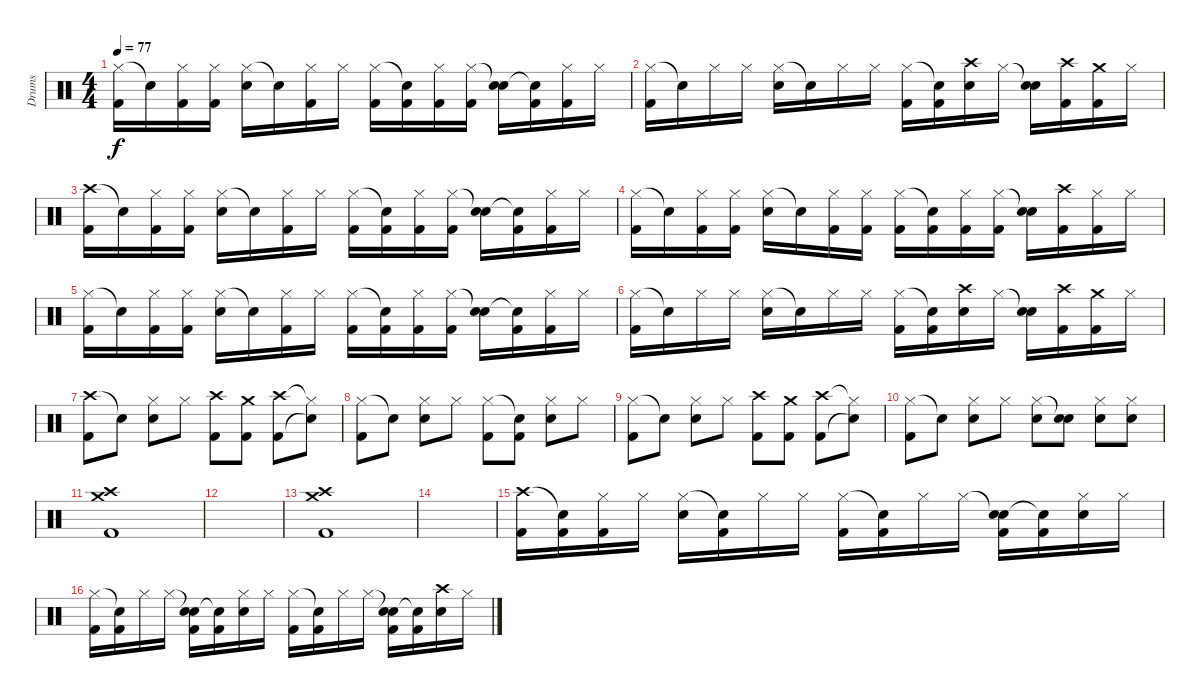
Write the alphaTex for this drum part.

\track ("Drums" "Drums") {instrument percussion}
\staff {score}
\articulation defaults
\ts (4 4)
\tempo 77
\clef neutral
\ks c
("Hi-Hat (closed)" "Kick (hit) 2").16{dy f} "Snare (hit)"{t}.16 ("Hi-Hat (closed)" "Kick (hit) 2").16 ("Hi-Hat (closed)" "Kick (hit) 2").16 ("Hi-Hat (closed)" "Electric Snare (hit)").16 "Snare (hit)"{t}.16 ("Hi-Hat (closed)" "Kick (hit) 2").16 "Hi-Hat (closed)".16 ("Hi-Hat (closed)" "Kick (hit) 2").16 ("Snare (hit)"{t} "Kick (hit) 2").16 ("Hi-Hat (closed)" "Kick (hit) 2").16 ("Hi-Hat (closed)" "Kick (hit) 2").16 ("Snare (hit)"{t} "Electric Snare (hit)").16 ("Snare (hit)"{t} "Kick (hit) 2").16 ("Hi-Hat (closed)" "Kick (hit) 2").16 "Hi-Hat (closed)".16 |
("Hi-Hat (closed)" "Kick (hit) 2").16 "Snare (hit)"{t}.16 "Hi-Hat (closed)".16 "Hi-Hat (closed)".16 ("Hi-Hat (closed)" "Electric Snare (hit)").16 "Snare (hit)"{t}.16 "Hi-Hat (closed)".16 "Hi-Hat (closed)".16 ("Hi-Hat (closed)" "Kick (hit) 2").16 ("Snare (hit)"{t} "Kick (hit) 2").16 ("Crash high (hit)" "Electric Snare (hit)").16 "Hi-Hat (closed)".16 ("Snare (hit)"{t} "Electric Snare (hit)").16 ("Crash high (hit)" "Kick (hit) 2").16 ("Crash medium (hit)" "Kick (hit) 2").16 "Hi-Hat (closed)".16 |
("Crash high (hit)" "Kick (hit) 2").16 "Snare (hit)"{t}.16 ("Hi-Hat (closed)" "Kick (hit) 2").16 ("Hi-Hat (closed)" "Kick (hit) 2").16 ("Hi-Hat (closed)" "Electric Snare (hit)").16 "Snare (hit)"{t}.16 ("Hi-Hat (closed)" "Kick (hit) 2").16 "Hi-Hat (closed)".16 ("Hi-Hat (closed)" "Kick (hit) 2").16 ("Snare (hit)"{t} "Kick (hit) 2").16 ("Hi-Hat (closed)" "Kick (hit) 2").16 ("Hi-Hat (closed)" "Kick (hit) 2").16 ("Snare (hit)"{t} "Electric Snare (hit)").16 ("Snare (hit)"{t} "Kick (hit) 2").16 ("Hi-Hat (closed)" "Kick (hit) 2").16 "Hi-Hat (closed)".16 |
("Hi-Hat (closed)" "Kick (hit) 2").16 "Snare (hit)"{t}.16 ("Hi-Hat (closed)" "Kick (hit) 2").16 ("Hi-Hat (closed)" "Kick (hit) 2").16 ("Hi-Hat (closed)" "Electric Snare (hit)").16 "Snare (hit)"{t}.16 ("Hi-Hat (closed)" "Kick (hit) 2").16 ("Hi-Hat (closed)" "Kick (hit) 2").16 ("Hi-Hat (closed)" "Kick (hit) 2").16 ("Snare (hit)"{t} "Kick (hit) 2").16 ("Hi-Hat (closed)" "Kick (hit) 2").16 ("Hi-Hat (closed)" "Kick (hit) 2").16 ("Snare (hit)"{t} "Electric Snare (hit)").16 ("Crash high (hit)" "Kick (hit) 2").16 ("Hi-Hat (closed)" "Kick (hit) 2").16 "Hi-Hat (closed)".16 |
("Hi-Hat (closed)" "Kick (hit) 2").16 "Snare (hit)"{t}.16 ("Hi-Hat (closed)" "Kick (hit) 2").16 ("Hi-Hat (closed)" "Kick (hit) 2").16 ("Hi-Hat (closed)" "Electric Snare (hit)").16 "Snare (hit)"{t}.16 ("Hi-Hat (closed)" "Kick (hit) 2").16 "Hi-Hat (closed)".16 ("Hi-Hat (closed)" "Kick (hit) 2").16 ("Snare (hit)"{t} "Kick (hit) 2").16 ("Hi-Hat (closed)" "Kick (hit) 2").16 ("Hi-Hat (closed)" "Kick (hit) 2").16 ("Snare (hit)"{t} "Electric Snare (hit)").16 ("Snare (hit)"{t} "Kick (hit) 2").16 ("Hi-Hat (closed)" "Kick (hit) 2").16 "Hi-Hat (closed)".16 |
("Hi-Hat (closed)" "Kick (hit) 2").16 "Snare (hit)"{t}.16 "Hi-Hat (closed)".16 "Hi-Hat (closed)".16 ("Hi-Hat (closed)" "Electric Snare (hit)").16 "Snare (hit)"{t}.16 "Hi-Hat (closed)".16 "Hi-Hat (closed)".16 ("Hi-Hat (closed)" "Kick (hit) 2").16 ("Snare (hit)"{t} "Kick (hit) 2").16 ("Crash high (hit)" "Electric Snare (hit)").16 "Hi-Hat (closed)".16 ("Snare (hit)"{t} "Electric Snare (hit)").16 ("Crash high (hit)" "Kick (hit) 2").16 ("Crash medium (hit)" "Kick (hit) 2").16 "Hi-Hat (closed)".16 |
("Crash high (hit)" "Kick (hit) 2").8 "Snare (hit)"{t}.8 ("Hi-Hat (closed)" "Electric Snare (hit)").8 "Hi-Hat (closed)".8 ("Crash high (hit)" "Kick (hit) 2").8 ("Crash medium (hit)" "Kick (hit) 2").8 ("Crash high (hit)" "Kick (hit) 2").8 ("Hi-Hat (closed)"{t} "Snare (hit)"{t}).8 |
("Hi-Hat (closed)" "Kick (hit) 2").8 "Snare (hit)"{t}.8 ("Hi-Hat (closed)" "Electric Snare (hit)").8 "Hi-Hat (closed)".8 ("Hi-Hat (closed)" "Kick (hit) 2").8 ("Snare (hit)"{t} "Kick (hit) 2").8 ("Hi-Hat (closed)" "Electric Snare (hit)").8 "Hi-Hat (closed)".8 |
("Hi-Hat (closed)" "Kick (hit) 2").8 "Snare (hit)"{t}.8 ("Hi-Hat (closed)" "Electric Snare (hit)").8 "Hi-Hat (closed)".8 ("Crash high (hit)" "Kick (hit) 2").8 ("Crash medium (hit)" "Kick (hit) 2").8 ("Crash high (hit)" "Kick (hit) 2").8 ("Hi-Hat (closed)"{t} "Snare (hit)"{t}).8 |
("Hi-Hat (closed)" "Kick (hit) 2").8 "Snare (hit)"{t}.8 ("Hi-Hat (closed)" "Electric Snare (hit)").8 "Hi-Hat (closed)".8 ("Hi-Hat (closed)" "Electric Snare (hit)").8 ("Snare (hit)"{t} "Electric Snare (hit)").8 ("Hi-Hat (closed)" "Electric Snare (hit)").8 ("Hi-Hat (closed)" "Electric Snare (hit)").8 |
("Crash high (hit)" "Crash medium (hit)" "Kick (hit) 2").1 |
|
("Crash high (hit)" "Crash medium (hit)" "Kick (hit) 2").1 |
|
("Crash high (hit)" "Kick (hit) 2").16 ("Snare (hit)"{t} "Kick (hit) 2").16 ("Hi-Hat (closed)" "Kick (hit) 2").16 "Hi-Hat (closed)".16 ("Hi-Hat (closed)" "Electric Snare (hit)").16 ("Snare (hit)"{t} "Kick (hit) 2").16 "Hi-Hat (closed)".16 "Hi-Hat (closed)".16 ("Hi-Hat (closed)" "Kick (hit) 2").16 ("Snare (hit)"{t} "Kick (hit) 2").16 "Hi-Hat (closed)".16 "Hi-Hat (closed)".16 ("Snare (hit)"{t} "Electric Snare (hit)" "Kick (hit) 2").16 ("Snare (hit)"{t} "Kick (hit) 2").16 ("Hi-Hat (closed)" "Electric Snare (hit)").16 "Hi-Hat (closed)".16 |
("Hi-Hat (closed)" "Kick (hit) 2").16 ("Snare (hit)"{t} "Kick (hit) 2").16 "Hi-Hat (closed)".16 "Hi-Hat (closed)".16 ("Snare (hit)"{t} "Electric Snare (hit)" "Kick (hit) 2").16 ("Snare (hit)"{t} "Kick (hit) 2").16 ("Hi-Hat (closed)" "Electric Snare (hit)").16 "Hi-Hat (closed)".16 ("Hi-Hat (closed)" "Kick (hit) 2").16 ("Snare (hit)"{t} "Kick (hit) 2").16 "Hi-Hat (closed)".16 "Hi-Hat (closed)".16 ("Snare (hit)"{t} "Electric Snare (hit)" "Kick (hit) 2").16 ("Snare (hit)"{t} "Kick (hit) 2").16 ("Crash high (hit)" "Electric Snare (hit)").16 "Hi-Hat (closed)".16
